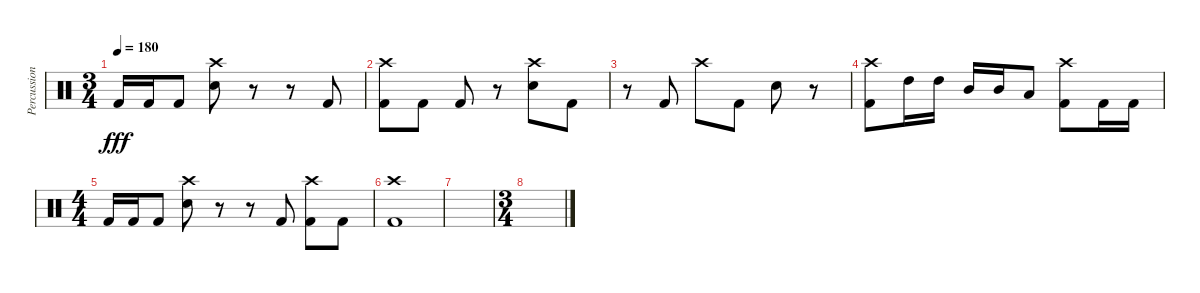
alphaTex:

\track ("Percussion" "Percussion") {instrument percussion}
\staff {score}
\articulation defaults
\ts (3 4)
\tempo 180
\clef neutral
\ks c "Kick (hit) 2".16{dy fff} "Kick (hit) 2".16 "Kick (hit) 2".8
("Crash high (hit)" "Electric Snare (hit)").8 r.8 r.8 "Kick (hit) 2".8 |
("Crash high (hit)" "Kick (hit) 2").8 "Kick (hit) 2".8 "Kick (hit) 2".8 r.8 ("Crash high (hit)" "Electric Snare (hit)").8 "Kick (hit) 2".8 |
r.8 "Kick (hit) 2".8 "Crash high (hit)".8 "Kick (hit) 2".8 "Electric Snare (hit)".8 r.8 |
("Crash high (hit)" "Kick (hit) 2").8 "High Tom (hit)".16 "High Tom (hit)".16 "Mid Tom (hit)".16 "Mid Tom (hit)".16 "Low Tom (hit)".8 ("Crash high (hit)" "Kick (hit) 2").8 "Kick (hit) 2".16 "Kick (hit) 2".16 |
\ts (4 4)
"Kick (hit) 2".16 "Kick (hit) 2".16 "Kick (hit) 2".8 ("Crash high (hit)" "Electric Snare (hit)").8 r.8 r.8 "Kick (hit) 2".8 ("Crash high (hit)" "Kick (hit) 2").8 "Kick (hit) 2".8 |
("Crash high (hit)" "Kick (hit) 2").1 |
|
\ts (3 4)
